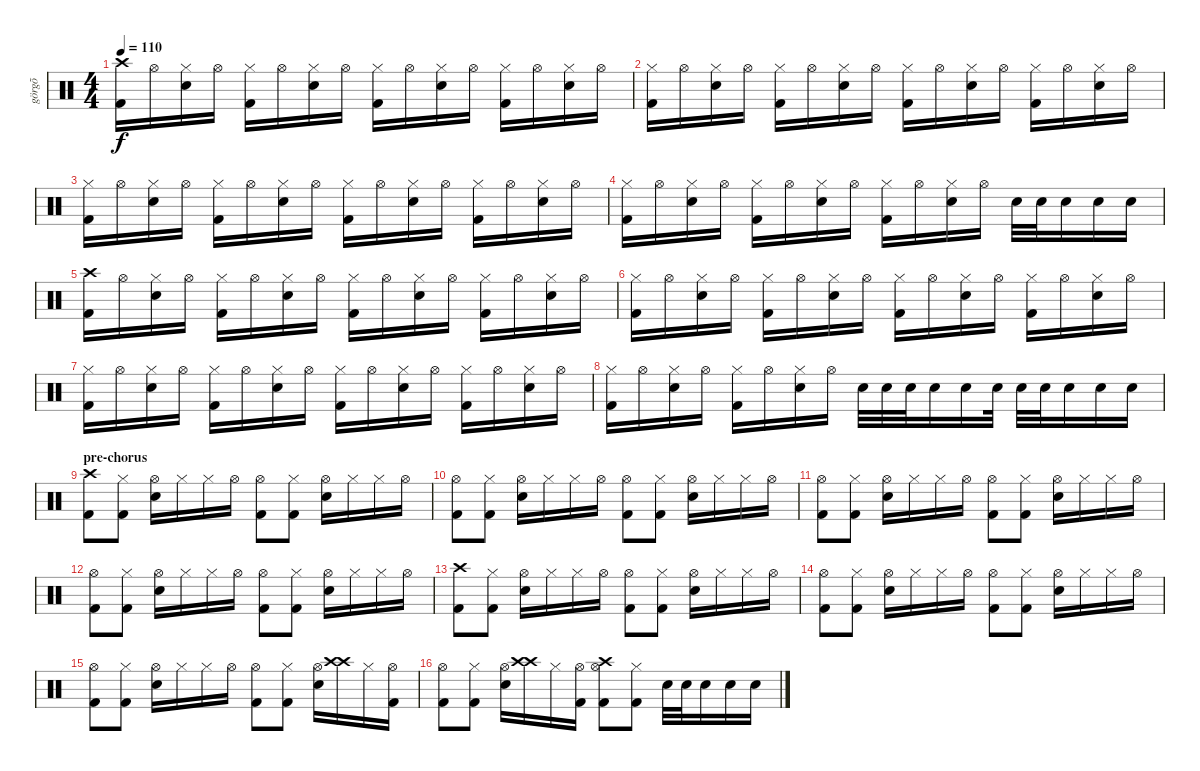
\track ("görgõ" "görgõ") {instrument percussion}
\staff {score}
\articulation defaults
\ts (4 4)
\tempo 110
\clef neutral
\ks c
("Crash high (hit)" "Kick (hit) 2").16{dy f} "Hi-Hat (open)".16 ("Hi-Hat (closed)" "Snare (hit) 2").16 "Hi-Hat (open)".16 ("Hi-Hat (closed)" "Kick (hit) 2").16 "Hi-Hat (open)".16 ("Hi-Hat (closed)" "Snare (hit) 2").16 "Hi-Hat (open)".16 ("Hi-Hat (closed)" "Kick (hit) 2").16 "Hi-Hat (open)".16 ("Hi-Hat (closed)" "Snare (hit) 2").16 "Hi-Hat (open)".16 ("Hi-Hat (closed)" "Kick (hit) 2").16 "Hi-Hat (open)".16 ("Hi-Hat (closed)" "Snare (hit) 2").16 "Hi-Hat (open)".16 |
("Hi-Hat (closed)" "Kick (hit) 2").16 "Hi-Hat (open)".16 ("Hi-Hat (closed)" "Snare (hit) 2").16 "Hi-Hat (open)".16 ("Hi-Hat (closed)" "Kick (hit) 2").16 "Hi-Hat (open)".16 ("Hi-Hat (closed)" "Snare (hit) 2").16 "Hi-Hat (open)".16 ("Hi-Hat (closed)" "Kick (hit) 2").16 "Hi-Hat (open)".16 ("Hi-Hat (closed)" "Snare (hit) 2").16 "Hi-Hat (open)".16 ("Hi-Hat (closed)" "Kick (hit) 2").16 "Hi-Hat (open)".16 ("Hi-Hat (closed)" "Snare (hit) 2").16 "Hi-Hat (open)".16 |
("Hi-Hat (closed)" "Kick (hit) 2").16 "Hi-Hat (open)".16 ("Hi-Hat (closed)" "Snare (hit) 2").16 "Hi-Hat (open)".16 ("Hi-Hat (closed)" "Kick (hit) 2").16 "Hi-Hat (open)".16 ("Hi-Hat (closed)" "Snare (hit) 2").16 "Hi-Hat (open)".16 ("Hi-Hat (closed)" "Kick (hit) 2").16 "Hi-Hat (open)".16 ("Hi-Hat (closed)" "Snare (hit) 2").16 "Hi-Hat (open)".16 ("Hi-Hat (closed)" "Kick (hit) 2").16 "Hi-Hat (open)".16 ("Hi-Hat (closed)" "Snare (hit) 2").16 "Hi-Hat (open)".16 |
("Hi-Hat (closed)" "Kick (hit) 2").16 "Hi-Hat (open)".16 ("Hi-Hat (closed)" "Snare (hit) 2").16 "Hi-Hat (open)".16 ("Hi-Hat (closed)" "Kick (hit) 2").16 "Hi-Hat (open)".16 ("Hi-Hat (closed)" "Snare (hit) 2").16 "Hi-Hat (open)".16 ("Hi-Hat (closed)" "Kick (hit) 2").16 "Hi-Hat (open)".16 ("Hi-Hat (closed)" "Snare (hit) 2").16 "Hi-Hat (open)".16 "Snare (hit) 2".32 "Snare (hit) 2".32 "Snare (hit) 2".16 "Snare (hit) 2".16 "Snare (hit) 2".16 |
("Crash high (hit)" "Kick (hit) 2").16 "Hi-Hat (open)".16 ("Hi-Hat (closed)" "Snare (hit) 2").16 "Hi-Hat (open)".16 ("Hi-Hat (closed)" "Kick (hit) 2").16 "Hi-Hat (open)".16 ("Hi-Hat (closed)" "Snare (hit) 2").16 "Hi-Hat (open)".16 ("Hi-Hat (closed)" "Kick (hit) 2").16 "Hi-Hat (open)".16 ("Hi-Hat (closed)" "Snare (hit) 2").16 "Hi-Hat (open)".16 ("Hi-Hat (closed)" "Kick (hit) 2").16 "Hi-Hat (open)".16 ("Hi-Hat (closed)" "Snare (hit) 2").16 "Hi-Hat (open)".16 |
("Hi-Hat (closed)" "Kick (hit) 2").16 "Hi-Hat (open)".16 ("Hi-Hat (closed)" "Snare (hit) 2").16 "Hi-Hat (open)".16 ("Hi-Hat (closed)" "Kick (hit) 2").16 "Hi-Hat (open)".16 ("Hi-Hat (closed)" "Snare (hit) 2").16 "Hi-Hat (open)".16 ("Hi-Hat (closed)" "Kick (hit) 2").16 "Hi-Hat (open)".16 ("Hi-Hat (closed)" "Snare (hit) 2").16 "Hi-Hat (open)".16 ("Hi-Hat (closed)" "Kick (hit) 2").16 "Hi-Hat (open)".16 ("Hi-Hat (closed)" "Snare (hit) 2").16 "Hi-Hat (open)".16 |
("Hi-Hat (closed)" "Kick (hit) 2").16 "Hi-Hat (open)".16 ("Hi-Hat (closed)" "Snare (hit) 2").16 "Hi-Hat (open)".16 ("Hi-Hat (closed)" "Kick (hit) 2").16 "Hi-Hat (open)".16 ("Hi-Hat (closed)" "Snare (hit) 2").16 "Hi-Hat (open)".16 ("Hi-Hat (closed)" "Kick (hit) 2").16 "Hi-Hat (open)".16 ("Hi-Hat (closed)" "Snare (hit) 2").16 "Hi-Hat (open)".16 ("Hi-Hat (closed)" "Kick (hit) 2").16 "Hi-Hat (open)".16 ("Hi-Hat (closed)" "Snare (hit) 2").16 "Hi-Hat (open)".16 |
("Hi-Hat (closed)" "Kick (hit) 2").16 "Hi-Hat (open)".16 ("Hi-Hat (closed)" "Snare (hit) 2").16 "Hi-Hat (open)".16 ("Hi-Hat (closed)" "Kick (hit) 2").16 "Hi-Hat (open)".16 ("Hi-Hat (closed)" "Snare (hit) 2").16 "Hi-Hat (open)".16 "Snare (hit) 2".32 "Snare (hit) 2".32 "Snare (hit) 2".32 "Snare (hit) 2".16 "Snare (hit) 2".16 "Snare (hit) 2".32 "Snare (hit) 2".32 "Snare (hit) 2".32 "Snare (hit) 2".16 "Snare (hit) 2".16 "Snare (hit) 2".16 |
\section ("" "pre-chorus")
("Crash high (hit)" "Kick (hit) 2").8 ("Hi-Hat (closed)" "Kick (hit) 2").8 ("Hi-Hat (open)" "Snare (hit) 2").16 "Hi-Hat (closed)".16 "Hi-Hat (closed)".16 "Hi-Hat (open)".16 ("Hi-Hat (open)" "Kick (hit) 2").8 ("Hi-Hat (closed)" "Kick (hit) 2").8 ("Hi-Hat (open)" "Snare (hit) 2").16 "Hi-Hat (closed)".16 "Hi-Hat (closed)".16 "Hi-Hat (open)".16 |
("Hi-Hat (open)" "Kick (hit) 2").8 ("Hi-Hat (closed)" "Kick (hit) 2").8 ("Hi-Hat (open)" "Snare (hit) 2").16 "Hi-Hat (closed)".16 "Hi-Hat (closed)".16 "Hi-Hat (open)".16 ("Hi-Hat (open)" "Kick (hit) 2").8 ("Hi-Hat (closed)" "Kick (hit) 2").8 ("Hi-Hat (open)" "Snare (hit) 2").16 "Hi-Hat (closed)".16 "Hi-Hat (closed)".16 "Hi-Hat (open)".16 |
("Hi-Hat (open)" "Kick (hit) 2").8 ("Hi-Hat (closed)" "Kick (hit) 2").8 ("Hi-Hat (open)" "Snare (hit) 2").16 "Hi-Hat (closed)".16 "Hi-Hat (closed)".16 "Hi-Hat (open)".16 ("Hi-Hat (open)" "Kick (hit) 2").8 ("Hi-Hat (closed)" "Kick (hit) 2").8 ("Hi-Hat (open)" "Snare (hit) 2").16 "Hi-Hat (closed)".16 "Hi-Hat (closed)".16 "Hi-Hat (open)".16 |
("Hi-Hat (open)" "Kick (hit) 2").8 ("Hi-Hat (closed)" "Kick (hit) 2").8 ("Hi-Hat (open)" "Snare (hit) 2").16 "Hi-Hat (closed)".16 "Hi-Hat (closed)".16 "Hi-Hat (open)".16 ("Hi-Hat (open)" "Kick (hit) 2").8 ("Hi-Hat (closed)" "Kick (hit) 2").8 ("Hi-Hat (open)" "Snare (hit) 2").16 "Hi-Hat (closed)".16 "Hi-Hat (closed)".16 "Hi-Hat (open)".16 |
("Crash high (hit)" "Kick (hit) 2").8 ("Hi-Hat (closed)" "Kick (hit) 2").8 ("Hi-Hat (open)" "Snare (hit) 2").16 "Hi-Hat (closed)".16 "Hi-Hat (closed)".16 "Hi-Hat (open)".16 ("Hi-Hat (open)" "Kick (hit) 2").8 ("Hi-Hat (closed)" "Kick (hit) 2").8 ("Hi-Hat (open)" "Snare (hit) 2").16 "Hi-Hat (closed)".16 "Hi-Hat (closed)".16 "Hi-Hat (open)".16 |
("Hi-Hat (open)" "Kick (hit) 2").8 ("Hi-Hat (closed)" "Kick (hit) 2").8 ("Hi-Hat (open)" "Snare (hit) 2").16 "Hi-Hat (closed)".16 "Hi-Hat (closed)".16 "Hi-Hat (open)".16 ("Hi-Hat (open)" "Kick (hit) 2").8 ("Hi-Hat (closed)" "Kick (hit) 2").8 ("Hi-Hat (open)" "Snare (hit) 2").16 "Hi-Hat (closed)".16 "Hi-Hat (closed)".16 "Hi-Hat (open)".16 |
("Hi-Hat (open)" "Kick (hit) 2").8 ("Hi-Hat (closed)" "Kick (hit) 2").8 ("Hi-Hat (open)" "Snare (hit) 2").16 "Hi-Hat (closed)".16 "Hi-Hat (closed)".16 "Hi-Hat (open)".16 ("Hi-Hat (open)" "Kick (hit) 2").8 ("Hi-Hat (closed)" "Kick (hit) 2").8 ("Hi-Hat (open)" "Snare (hit) 2").16 ("Crash high (hit)" "Crash high (hit)").16 "Hi-Hat (closed)".16 ("Hi-Hat (open)" "Kick (hit) 2").16 |
("Hi-Hat (open)" "Kick (hit) 2").8 ("Hi-Hat (closed)" "Kick (hit) 2").8 ("Hi-Hat (open)" "Snare (hit) 2").16 ("Crash high (hit)" "Crash high (hit)").16 "Hi-Hat (closed)".16 ("Hi-Hat (open)" "Kick (hit) 2").16 ("Hi-Hat (open)" "Crash high (hit)" "Kick (hit) 2").8 ("Hi-Hat (closed)" "Kick (hit) 2").8 "Snare (hit) 2".32 "Snare (hit) 2".32 "Snare (hit) 2".16 "Snare (hit) 2".16 "Snare (hit) 2".16
